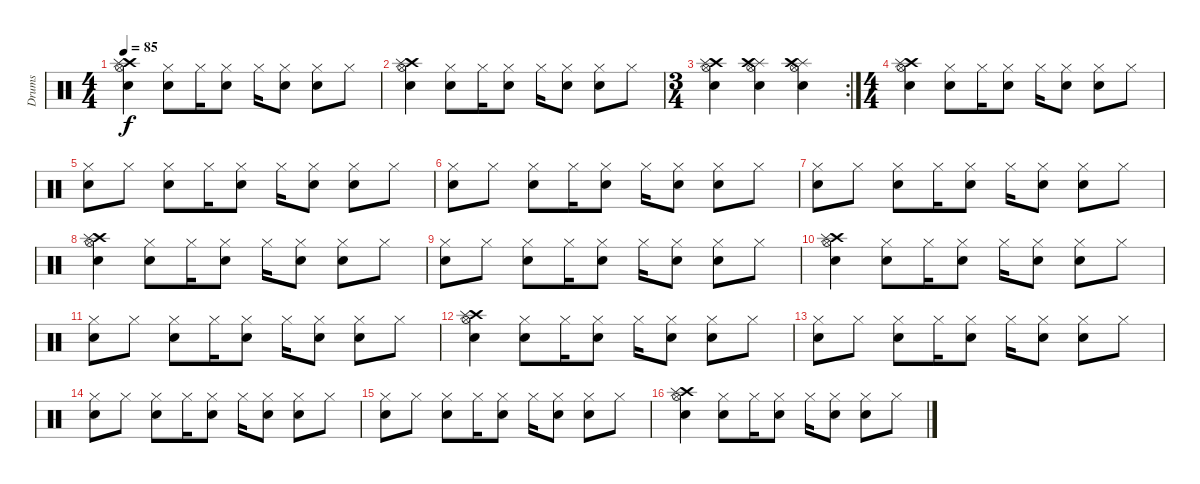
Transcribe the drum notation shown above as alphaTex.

\track ("Drums" "Drums") {instrument percussion}
\staff {score}
\articulation defaults
\ts (4 4)
\tempo 85
\clef neutral
\ks c
("Crash high (hit)" "Splash (hit)" "Snare (hit) 2" "Hi-Hat (open)").4{dy f} ("Hi-Hat (closed)" "Snare (hit) 2").8 "Hi-Hat (closed)".16 ("Hi-Hat (closed)" "Snare (hit) 2").8 "Hi-Hat (closed)".16 ("Hi-Hat (closed)" "Snare (hit) 2").8 ("Hi-Hat (closed)" "Snare (hit) 2").8 "Hi-Hat (closed)".8 |
("Crash high (hit)" "Splash (hit)" "Snare (hit) 2" "Hi-Hat (open)").4 ("Hi-Hat (closed)" "Snare (hit) 2").8 "Hi-Hat (closed)".16 ("Hi-Hat (closed)" "Snare (hit) 2").8 "Hi-Hat (closed)".16 ("Hi-Hat (closed)" "Snare (hit) 2").8 ("Hi-Hat (closed)" "Snare (hit) 2").8 "Hi-Hat (closed)".8 |
\rc 2
\ts (3 4)
("Crash high (hit)" "Splash (hit)" "Snare (hit) 2" "Hi-Hat (open)").4 ("Splash (hit)" "Hi-Hat (open)" "Crash high (hit)" "Snare (hit) 2").4 ("Hi-Hat (open)" "Snare (hit) 2" "Splash (hit)" "Crash high (hit)").4 |
\ts (4 4)
("Crash high (hit)" "Splash (hit)" "Snare (hit) 2" "Hi-Hat (open)").4 ("Hi-Hat (closed)" "Snare (hit) 2").8 "Hi-Hat (closed)".16 ("Hi-Hat (closed)" "Snare (hit) 2").8 "Hi-Hat (closed)".16 ("Hi-Hat (closed)" "Snare (hit) 2").8 ("Hi-Hat (closed)" "Snare (hit) 2").8 "Hi-Hat (closed)".8 |
("Hi-Hat (closed)" "Snare (hit) 2").8 "Hi-Hat (closed)".8 ("Hi-Hat (closed)" "Snare (hit) 2").8 "Hi-Hat (closed)".16 ("Hi-Hat (closed)" "Snare (hit) 2").8 "Hi-Hat (closed)".16 ("Hi-Hat (closed)" "Snare (hit) 2").8 ("Hi-Hat (closed)" "Snare (hit) 2").8 "Hi-Hat (closed)".8 |
("Hi-Hat (closed)" "Snare (hit) 2").8 "Hi-Hat (closed)".8 ("Hi-Hat (closed)" "Snare (hit) 2").8 "Hi-Hat (closed)".16 ("Hi-Hat (closed)" "Snare (hit) 2").8 "Hi-Hat (closed)".16 ("Hi-Hat (closed)" "Snare (hit) 2").8 ("Hi-Hat (closed)" "Snare (hit) 2").8 "Hi-Hat (closed)".8 |
("Hi-Hat (closed)" "Snare (hit) 2").8 "Hi-Hat (closed)".8 ("Hi-Hat (closed)" "Snare (hit) 2").8 "Hi-Hat (closed)".16 ("Hi-Hat (closed)" "Snare (hit) 2").8 "Hi-Hat (closed)".16 ("Hi-Hat (closed)" "Snare (hit) 2").8 ("Hi-Hat (closed)" "Snare (hit) 2").8 "Hi-Hat (closed)".8 |
("Crash high (hit)" "Splash (hit)" "Snare (hit) 2" "Hi-Hat (open)").4 ("Hi-Hat (closed)" "Snare (hit) 2").8 "Hi-Hat (closed)".16 ("Hi-Hat (closed)" "Snare (hit) 2").8 "Hi-Hat (closed)".16 ("Hi-Hat (closed)" "Snare (hit) 2").8 ("Hi-Hat (closed)" "Snare (hit) 2").8 "Hi-Hat (closed)".8 |
("Hi-Hat (closed)" "Snare (hit) 2").8 "Hi-Hat (closed)".8 ("Hi-Hat (closed)" "Snare (hit) 2").8 "Hi-Hat (closed)".16 ("Hi-Hat (closed)" "Snare (hit) 2").8 "Hi-Hat (closed)".16 ("Hi-Hat (closed)" "Snare (hit) 2").8 ("Hi-Hat (closed)" "Snare (hit) 2").8 "Hi-Hat (closed)".8 |
("Crash high (hit)" "Splash (hit)" "Snare (hit) 2" "Hi-Hat (open)").4 ("Hi-Hat (closed)" "Snare (hit) 2").8 "Hi-Hat (closed)".16 ("Hi-Hat (closed)" "Snare (hit) 2").8 "Hi-Hat (closed)".16 ("Hi-Hat (closed)" "Snare (hit) 2").8 ("Hi-Hat (closed)" "Snare (hit) 2").8 "Hi-Hat (closed)".8 |
("Hi-Hat (closed)" "Snare (hit) 2").8 "Hi-Hat (closed)".8 ("Hi-Hat (closed)" "Snare (hit) 2").8 "Hi-Hat (closed)".16 ("Hi-Hat (closed)" "Snare (hit) 2").8 "Hi-Hat (closed)".16 ("Hi-Hat (closed)" "Snare (hit) 2").8 ("Hi-Hat (closed)" "Snare (hit) 2").8 "Hi-Hat (closed)".8 |
("Crash high (hit)" "Splash (hit)" "Snare (hit) 2" "Hi-Hat (open)").4 ("Hi-Hat (closed)" "Snare (hit) 2").8 "Hi-Hat (closed)".16 ("Hi-Hat (closed)" "Snare (hit) 2").8 "Hi-Hat (closed)".16 ("Hi-Hat (closed)" "Snare (hit) 2").8 ("Hi-Hat (closed)" "Snare (hit) 2").8 "Hi-Hat (closed)".8 |
("Hi-Hat (closed)" "Snare (hit) 2").8 "Hi-Hat (closed)".8 ("Hi-Hat (closed)" "Snare (hit) 2").8 "Hi-Hat (closed)".16 ("Hi-Hat (closed)" "Snare (hit) 2").8 "Hi-Hat (closed)".16 ("Hi-Hat (closed)" "Snare (hit) 2").8 ("Hi-Hat (closed)" "Snare (hit) 2").8 "Hi-Hat (closed)".8 |
("Hi-Hat (closed)" "Snare (hit) 2").8 "Hi-Hat (closed)".8 ("Hi-Hat (closed)" "Snare (hit) 2").8 "Hi-Hat (closed)".16 ("Hi-Hat (closed)" "Snare (hit) 2").8 "Hi-Hat (closed)".16 ("Hi-Hat (closed)" "Snare (hit) 2").8 ("Hi-Hat (closed)" "Snare (hit) 2").8 "Hi-Hat (closed)".8 |
("Hi-Hat (closed)" "Snare (hit) 2").8 "Hi-Hat (closed)".8 ("Hi-Hat (closed)" "Snare (hit) 2").8 "Hi-Hat (closed)".16 ("Hi-Hat (closed)" "Snare (hit) 2").8 "Hi-Hat (closed)".16 ("Hi-Hat (closed)" "Snare (hit) 2").8 ("Hi-Hat (closed)" "Snare (hit) 2").8 "Hi-Hat (closed)".8 |
("Crash high (hit)" "Splash (hit)" "Snare (hit) 2" "Hi-Hat (open)").4 ("Hi-Hat (closed)" "Snare (hit) 2").8 "Hi-Hat (closed)".16 ("Hi-Hat (closed)" "Snare (hit) 2").8 "Hi-Hat (closed)".16 ("Hi-Hat (closed)" "Snare (hit) 2").8 ("Hi-Hat (closed)" "Snare (hit) 2").8 "Hi-Hat (closed)".8
